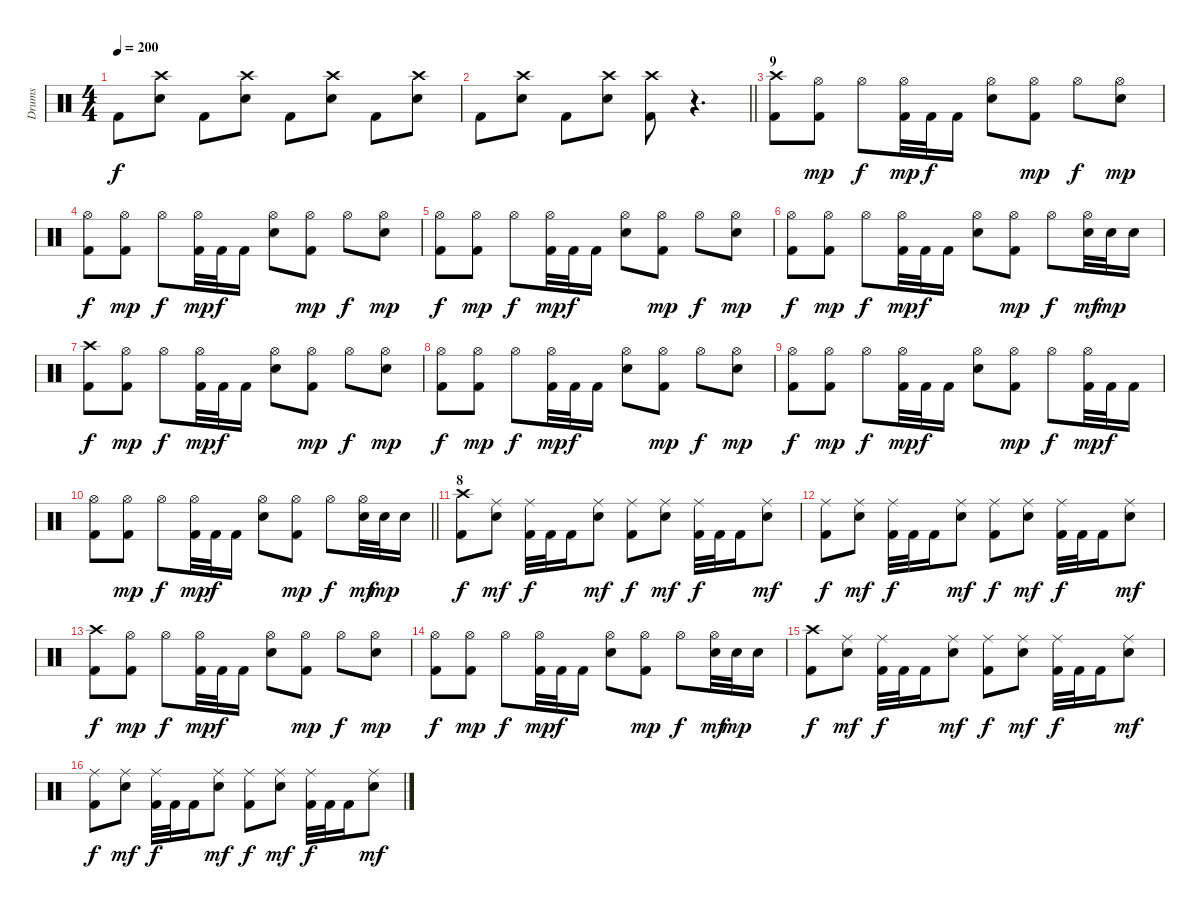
\track ("Drums" "Drums") {instrument percussion}
\staff {score}
\articulation defaults
\ts (4 4)
\tempo 200
\clef neutral
\ks c "Kick (hit) 2".8{dy f}
("Crash high (hit)" "Electric Snare (hit)").8 "Kick (hit) 2".8 ("Crash high (hit)" "Electric Snare (hit)").8 "Kick (hit) 2".8 ("Crash high (hit)" "Electric Snare (hit)").8 "Kick (hit) 2".8 ("Crash high (hit)" "Electric Snare (hit)").8 |
\barLineRight lightlight "Kick (hit) 2".8
("Crash high (hit)" "Electric Snare (hit)").8 "Kick (hit) 2".8 ("Crash high (hit)" "Electric Snare (hit)").8 ("Crash high (hit)" "Kick (hit) 2").8 r.4{d} |
\section ("" "9")
("Crash high (hit)" "Kick (hit) 2").8 ("Hi-Hat (open)" "Kick (hit) 2").8{dy mp} "Hi-Hat (open)".8{dy f} ("Hi-Hat (open)" "Kick (hit) 2").32{dy mp} "Kick (hit) 2".32{dy f} "Kick (hit) 2".16 ("Hi-Hat (open)" "Electric Snare (hit)").8 ("Hi-Hat (open)" "Kick (hit) 2").8{dy mp} "Hi-Hat (open)".8{dy f} ("Hi-Hat (open)" "Electric Snare (hit)").8{dy mp} |
("Hi-Hat (open)" "Kick (hit) 2").8{dy f} ("Hi-Hat (open)" "Kick (hit) 2").8{dy mp} "Hi-Hat (open)".8{dy f} ("Hi-Hat (open)" "Kick (hit) 2").32{dy mp} "Kick (hit) 2".32{dy f} "Kick (hit) 2".16 ("Hi-Hat (open)" "Electric Snare (hit)").8 ("Hi-Hat (open)" "Kick (hit) 2").8{dy mp} "Hi-Hat (open)".8{dy f} ("Hi-Hat (open)" "Electric Snare (hit)").8{dy mp} |
("Hi-Hat (open)" "Kick (hit) 2").8{dy f} ("Hi-Hat (open)" "Kick (hit) 2").8{dy mp} "Hi-Hat (open)".8{dy f} ("Hi-Hat (open)" "Kick (hit) 2").32{dy mp} "Kick (hit) 2".32{dy f} "Kick (hit) 2".16 ("Hi-Hat (open)" "Electric Snare (hit)").8 ("Hi-Hat (open)" "Kick (hit) 2").8{dy mp} "Hi-Hat (open)".8{dy f} ("Hi-Hat (open)" "Electric Snare (hit)").8{dy mp} |
("Hi-Hat (open)" "Kick (hit) 2").8{dy f} ("Hi-Hat (open)" "Kick (hit) 2").8{dy mp} "Hi-Hat (open)".8{dy f} ("Hi-Hat (open)" "Kick (hit) 2").32{dy mp} "Kick (hit) 2".32{dy f} "Kick (hit) 2".16 ("Hi-Hat (open)" "Electric Snare (hit)").8 ("Hi-Hat (open)" "Kick (hit) 2").8{dy mp} "Hi-Hat (open)".8{dy f} ("Hi-Hat (open)" "Electric Snare (hit)").32{dy mf} "Electric Snare (hit)".32{dy mp} "Electric Snare (hit)".16 |
("Crash high (hit)" "Kick (hit) 2").8{dy f} ("Hi-Hat (open)" "Kick (hit) 2").8{dy mp} "Hi-Hat (open)".8{dy f} ("Hi-Hat (open)" "Kick (hit) 2").32{dy mp} "Kick (hit) 2".32{dy f} "Kick (hit) 2".16 ("Hi-Hat (open)" "Electric Snare (hit)").8 ("Hi-Hat (open)" "Kick (hit) 2").8{dy mp} "Hi-Hat (open)".8{dy f} ("Hi-Hat (open)" "Electric Snare (hit)").8{dy mp} |
("Hi-Hat (open)" "Kick (hit) 2").8{dy f} ("Hi-Hat (open)" "Kick (hit) 2").8{dy mp} "Hi-Hat (open)".8{dy f} ("Hi-Hat (open)" "Kick (hit) 2").32{dy mp} "Kick (hit) 2".32{dy f} "Kick (hit) 2".16 ("Hi-Hat (open)" "Electric Snare (hit)").8 ("Hi-Hat (open)" "Kick (hit) 2").8{dy mp} "Hi-Hat (open)".8{dy f} ("Hi-Hat (open)" "Electric Snare (hit)").8{dy mp} |
("Hi-Hat (open)" "Kick (hit) 2").8{dy f} ("Hi-Hat (open)" "Kick (hit) 2").8{dy mp} "Hi-Hat (open)".8{dy f} ("Hi-Hat (open)" "Kick (hit) 2").32{dy mp} "Kick (hit) 2".32{dy f} "Kick (hit) 2".16 ("Hi-Hat (open)" "Electric Snare (hit)").8 ("Hi-Hat (open)" "Kick (hit) 2").8{dy mp} "Hi-Hat (open)".8{dy f} ("Hi-Hat (open)" "Kick (hit) 2").32{dy mp} "Kick (hit) 2".32{dy f} "Kick (hit) 2".16 |
\barLineRight lightlight
("Hi-Hat (open)" "Kick (hit) 2").8 ("Hi-Hat (open)" "Kick (hit) 2").8{dy mp} "Hi-Hat (open)".8{dy f} ("Hi-Hat (open)" "Kick (hit) 2").32{dy mp} "Kick (hit) 2".32{dy f} "Kick (hit) 2".16 ("Hi-Hat (open)" "Electric Snare (hit)").8 ("Hi-Hat (open)" "Kick (hit) 2").8{dy mp} "Hi-Hat (open)".8{dy f} ("Hi-Hat (open)" "Electric Snare (hit)").32{dy mf} "Electric Snare (hit)".32{dy mp} "Electric Snare (hit)".16 |
\section ("" "8")
("Crash high (hit)" "Kick (hit) 2").8{dy f} ("Ride (middle)" "Electric Snare (hit)").8{dy mf} ("Ride (middle)" "Kick (hit) 2").32{dy f} "Kick (hit) 2".32 "Kick (hit) 2".16 ("Ride (middle)" "Electric Snare (hit)").8{dy mf} ("Ride (middle)" "Kick (hit) 2").8{dy f} ("Ride (middle)" "Electric Snare (hit)").8{dy mf} ("Ride (middle)" "Kick (hit) 2").32{dy f} "Kick (hit) 2".32 "Kick (hit) 2".16 ("Ride (middle)" "Electric Snare (hit)").8{dy mf} |
("Ride (middle)" "Kick (hit) 2").8{dy f} ("Ride (middle)" "Electric Snare (hit)").8{dy mf} ("Ride (middle)" "Kick (hit) 2").32{dy f} "Kick (hit) 2".32 "Kick (hit) 2".16 ("Ride (middle)" "Electric Snare (hit)").8{dy mf} ("Ride (middle)" "Kick (hit) 2").8{dy f} ("Ride (middle)" "Electric Snare (hit)").8{dy mf} ("Ride (middle)" "Kick (hit) 2").32{dy f} "Kick (hit) 2".32 "Kick (hit) 2".16 ("Ride (middle)" "Electric Snare (hit)").8{dy mf} |
("Crash high (hit)" "Kick (hit) 2").8{dy f} ("Hi-Hat (open)" "Kick (hit) 2").8{dy mp} "Hi-Hat (open)".8{dy f} ("Hi-Hat (open)" "Kick (hit) 2").32{dy mp} "Kick (hit) 2".32{dy f} "Kick (hit) 2".16 ("Hi-Hat (open)" "Electric Snare (hit)").8 ("Hi-Hat (open)" "Kick (hit) 2").8{dy mp} "Hi-Hat (open)".8{dy f} ("Hi-Hat (open)" "Electric Snare (hit)").8{dy mp} |
("Hi-Hat (open)" "Kick (hit) 2").8{dy f} ("Hi-Hat (open)" "Kick (hit) 2").8{dy mp} "Hi-Hat (open)".8{dy f} ("Hi-Hat (open)" "Kick (hit) 2").32{dy mp} "Kick (hit) 2".32{dy f} "Kick (hit) 2".16 ("Hi-Hat (open)" "Electric Snare (hit)").8 ("Hi-Hat (open)" "Kick (hit) 2").8{dy mp} "Hi-Hat (open)".8{dy f} ("Hi-Hat (open)" "Electric Snare (hit)").32{dy mf} "Electric Snare (hit)".32{dy mp} "Electric Snare (hit)".16 |
("Crash high (hit)" "Kick (hit) 2").8{dy f} ("Ride (middle)" "Electric Snare (hit)").8{dy mf} ("Ride (middle)" "Kick (hit) 2").32{dy f} "Kick (hit) 2".32 "Kick (hit) 2".16 ("Ride (middle)" "Electric Snare (hit)").8{dy mf} ("Ride (middle)" "Kick (hit) 2").8{dy f} ("Ride (middle)" "Electric Snare (hit)").8{dy mf} ("Ride (middle)" "Kick (hit) 2").32{dy f} "Kick (hit) 2".32 "Kick (hit) 2".16 ("Ride (middle)" "Electric Snare (hit)").8{dy mf} |
("Ride (middle)" "Kick (hit) 2").8{dy f} ("Ride (middle)" "Electric Snare (hit)").8{dy mf} ("Ride (middle)" "Kick (hit) 2").32{dy f} "Kick (hit) 2".32 "Kick (hit) 2".16 ("Ride (middle)" "Electric Snare (hit)").8{dy mf} ("Ride (middle)" "Kick (hit) 2").8{dy f} ("Ride (middle)" "Electric Snare (hit)").8{dy mf} ("Ride (middle)" "Kick (hit) 2").32{dy f} "Kick (hit) 2".32 "Kick (hit) 2".16 ("Ride (middle)" "Electric Snare (hit)").8{dy mf}
